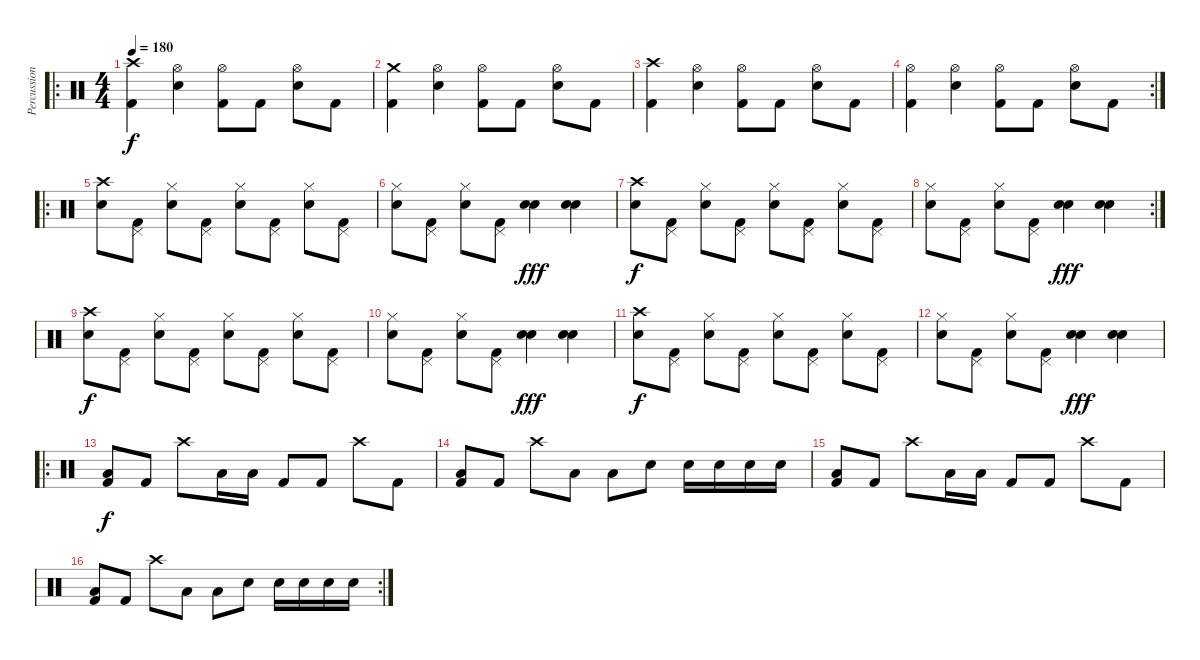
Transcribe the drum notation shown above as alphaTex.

\track ("Percussion" "Percussion") {instrument percussion}
\staff {score}
\articulation defaults
\ro
\ts (4 4)
\tempo 180
\clef neutral
\ks c
("Crash high (hit)" "Kick (hit) 2").4{dy f volume 13} ("Hi-Hat (open)" "Electric Snare (hit)").4 ("Hi-Hat (open)" "Kick (hit) 2").8 "Kick (hit) 2".8 ("Hi-Hat (open)" "Electric Snare (hit)").8 "Kick (hit) 2".8 |
("Crash medium (hit)" "Kick (hit) 2").4 ("Hi-Hat (open)" "Electric Snare (hit)").4 ("Hi-Hat (open)" "Kick (hit) 2").8 "Kick (hit) 2".8 ("Hi-Hat (open)" "Electric Snare (hit)").8 "Kick (hit) 2".8 |
("Crash high (hit)" "Kick (hit) 2").4 ("Hi-Hat (open)" "Electric Snare (hit)").4 ("Hi-Hat (open)" "Kick (hit) 2").8 "Kick (hit) 2".8 ("Hi-Hat (open)" "Electric Snare (hit)").8 "Kick (hit) 2".8 |
\rc 2
("Hi-Hat (open)" "Kick (hit) 2").4 ("Hi-Hat (open)" "Electric Snare (hit)").4 ("Hi-Hat (open)" "Kick (hit) 2").8 "Kick (hit) 2".8 ("Hi-Hat (open)" "Electric Snare (hit)").8 "Kick (hit) 2".8 |
\ro
("Crash high (hit)" "Snare (hit) 2").8 ("Pedal Hi-Hat (hit)" "Kick (hit) 2").8 ("Hi-Hat (closed)" "Snare (hit) 2").8 ("Pedal Hi-Hat (hit)" "Kick (hit) 2").8 ("Hi-Hat (closed)" "Snare (hit) 2").8 ("Pedal Hi-Hat (hit)" "Kick (hit) 2").8 ("Hi-Hat (closed)" "Snare (hit) 2").8 ("Pedal Hi-Hat (hit)" "Kick (hit) 2").8 |
("Hi-Hat (closed)" "Snare (hit) 2").8 ("Pedal Hi-Hat (hit)" "Kick (hit) 2").8 ("Hi-Hat (closed)" "Snare (hit) 2").8 ("Pedal Hi-Hat (hit)" "Kick (hit) 2").8 ("Snare (hit) 2" "Electric Snare (hit)").4{dy fff} ("Snare (hit) 2" "Electric Snare (hit)").4 |
("Crash high (hit)" "Snare (hit) 2").8{dy f} ("Pedal Hi-Hat (hit)" "Kick (hit) 2").8 ("Hi-Hat (closed)" "Snare (hit) 2").8 ("Pedal Hi-Hat (hit)" "Kick (hit) 2").8 ("Hi-Hat (closed)" "Snare (hit) 2").8 ("Pedal Hi-Hat (hit)" "Kick (hit) 2").8 ("Hi-Hat (closed)" "Snare (hit) 2").8 ("Pedal Hi-Hat (hit)" "Kick (hit) 2").8 |
\rc 2
("Hi-Hat (closed)" "Snare (hit) 2").8 ("Pedal Hi-Hat (hit)" "Kick (hit) 2").8 ("Hi-Hat (closed)" "Snare (hit) 2").8 ("Pedal Hi-Hat (hit)" "Kick (hit) 2").8 ("Snare (hit) 2" "Electric Snare (hit)").4{dy fff} ("Snare (hit) 2" "Electric Snare (hit)").4 |
("Crash high (hit)" "Snare (hit) 2").8{dy f} ("Pedal Hi-Hat (hit)" "Kick (hit) 2").8 ("Hi-Hat (closed)" "Snare (hit) 2").8 ("Pedal Hi-Hat (hit)" "Kick (hit) 2").8 ("Hi-Hat (closed)" "Snare (hit) 2").8 ("Pedal Hi-Hat (hit)" "Kick (hit) 2").8 ("Hi-Hat (closed)" "Snare (hit) 2").8 ("Pedal Hi-Hat (hit)" "Kick (hit) 2").8 |
("Hi-Hat (closed)" "Snare (hit) 2").8 ("Pedal Hi-Hat (hit)" "Kick (hit) 2").8 ("Hi-Hat (closed)" "Snare (hit) 2").8 ("Pedal Hi-Hat (hit)" "Kick (hit) 2").8 ("Snare (hit) 2" "Electric Snare (hit)").4{dy fff} ("Snare (hit) 2" "Electric Snare (hit)").4 |
("Crash high (hit)" "Snare (hit) 2").8{dy f} ("Pedal Hi-Hat (hit)" "Kick (hit) 2").8 ("Hi-Hat (closed)" "Snare (hit) 2").8 ("Pedal Hi-Hat (hit)" "Kick (hit) 2").8 ("Hi-Hat (closed)" "Snare (hit) 2").8 ("Pedal Hi-Hat (hit)" "Kick (hit) 2").8 ("Hi-Hat (closed)" "Snare (hit) 2").8 ("Pedal Hi-Hat (hit)" "Kick (hit) 2").8 |
("Hi-Hat (closed)" "Snare (hit) 2").8 ("Pedal Hi-Hat (hit)" "Kick (hit) 2").8 ("Hi-Hat (closed)" "Snare (hit) 2").8 ("Pedal Hi-Hat (hit)" "Kick (hit) 2").8 ("Snare (hit) 2" "Electric Snare (hit)").4{dy fff} ("Snare (hit) 2" "Electric Snare (hit)").4 |
\ro
("Low Tom (hit)" "Kick (hit) 2").8{dy f} "Kick (hit) 2".8 "Crash high (hit)".8 "Low Tom (hit)".16 "Low Floor Tom (hit)".16 "Kick (hit) 2".8 "Kick (hit) 2".8 "Crash high (hit)".8 "Kick (hit) 2".8 |
("Low Tom (hit)" "Kick (hit) 2").8 "Kick (hit) 2".8 "Crash high (hit)".8 "Low Tom (hit)".8 "Low Floor Tom (hit)".8 "Snare (hit) 2".8 "Snare (hit) 2".16 "Snare (hit) 2".16 "Snare (hit) 2".16 "Snare (hit) 2".16 |
("Low Tom (hit)" "Kick (hit) 2").8 "Kick (hit) 2".8 "Crash high (hit)".8 "Low Tom (hit)".16 "Low Floor Tom (hit)".16 "Kick (hit) 2".8 "Kick (hit) 2".8 "Crash high (hit)".8 "Kick (hit) 2".8 |
\rc 2
("Low Tom (hit)" "Kick (hit) 2").8 "Kick (hit) 2".8 "Crash high (hit)".8 "Low Tom (hit)".8 "Low Floor Tom (hit)".8 "Snare (hit) 2".8 "Snare (hit) 2".16 "Snare (hit) 2".16 "Snare (hit) 2".16 "Snare (hit) 2".16
